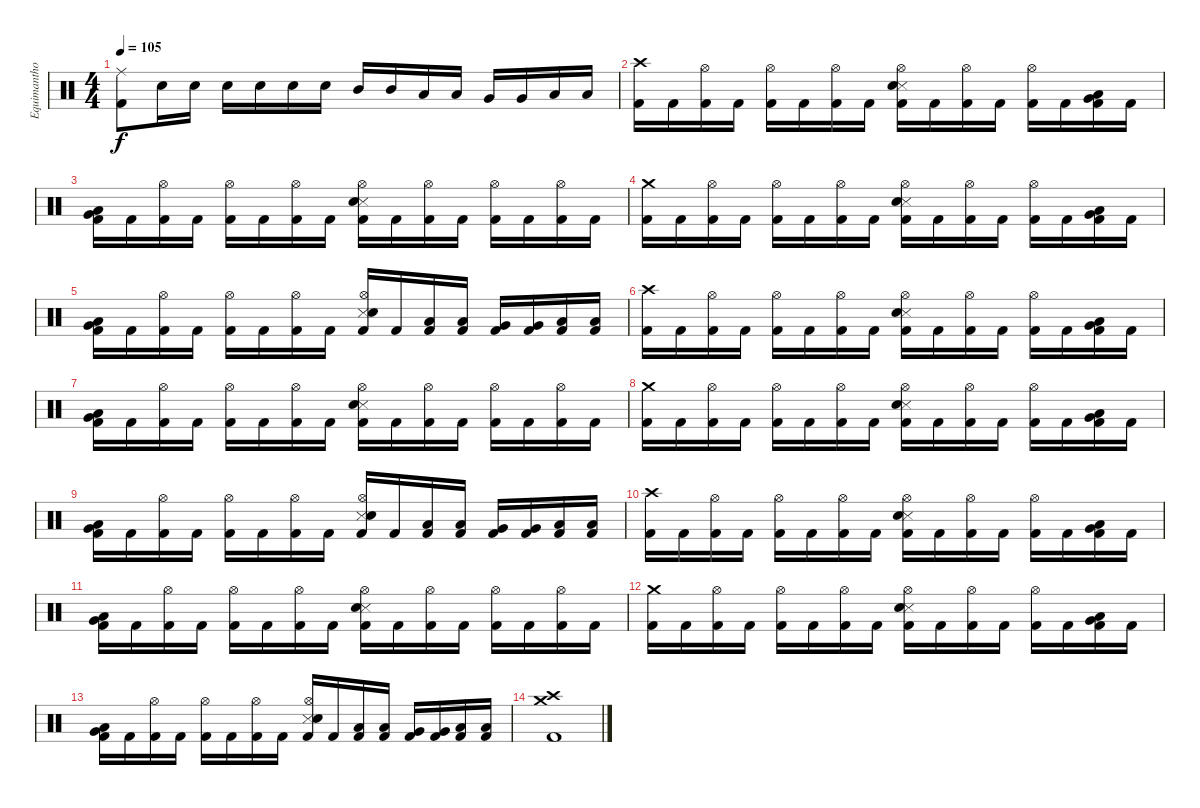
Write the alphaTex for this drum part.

\track ("Equimanthorn" "Equimantho") {instrument percussion}
\staff {score}
\articulation defaults
\ts (4 4)
\tempo 105
\clef neutral
\ks c
("Ride (middle)" "Kick (hit) 2").8{dy f} "Snare (hit) 2".16 "Snare (hit) 2".16 "Snare (hit) 2".16 "Snare (hit) 2".16 "Snare (hit) 2".16 "Snare (hit) 2".16 "Mid Tom (hit)".16 "Mid Tom (hit)".16 "Low Tom (hit)".16 "Low Tom (hit)".16 "Very Low Tom (hit)".16 "Very Low Tom (hit)".16 "Low Floor Tom (hit)".16 "Low Floor Tom (hit)".16 |
("Crash high (hit)" "Kick (hit) 2").16 "Kick (hit) 2".16 ("Hi-Hat (open)" "Kick (hit) 2").16 "Kick (hit) 2".16 ("Hi-Hat (open)" "Kick (hit) 2").16 "Kick (hit) 2".16 ("Hi-Hat (open)" "Kick (hit) 2").16 "Kick (hit) 2".16 ("Hi-Hat (open)" "Snare (side stick) 3" "Snare (hit) 2" "Kick (hit) 2").16 "Kick (hit) 2".16 ("Hi-Hat (open)" "Kick (hit) 2").16 "Kick (hit) 2".16 ("Hi-Hat (open)" "Kick (hit) 2").16 "Kick (hit) 2".16 ("Low Tom (hit)" "Very Low Tom (hit)" "Kick (hit) 2").16 "Kick (hit) 2".16 |
("Low Tom (hit)" "Very Low Tom (hit)" "Kick (hit) 2").16 "Kick (hit) 2".16 ("Hi-Hat (open)" "Kick (hit) 2").16 "Kick (hit) 2".16 ("Hi-Hat (open)" "Kick (hit) 2").16 "Kick (hit) 2".16 ("Hi-Hat (open)" "Kick (hit) 2").16 "Kick (hit) 2".16 ("Hi-Hat (open)" "Snare (side stick) 3" "Snare (hit) 2" "Kick (hit) 2").16 "Kick (hit) 2".16 ("Hi-Hat (open)" "Kick (hit) 2").16 "Kick (hit) 2".16 ("Hi-Hat (open)" "Kick (hit) 2").16 "Kick (hit) 2".16 ("Hi-Hat (open)" "Kick (hit) 2").16 "Kick (hit) 2".16 |
("Crash medium (hit)" "Kick (hit) 2").16 "Kick (hit) 2".16 ("Hi-Hat (open)" "Kick (hit) 2").16 "Kick (hit) 2".16 ("Hi-Hat (open)" "Kick (hit) 2").16 "Kick (hit) 2".16 ("Hi-Hat (open)" "Kick (hit) 2").16 "Kick (hit) 2".16 ("Hi-Hat (open)" "Snare (side stick) 3" "Snare (hit) 2" "Kick (hit) 2").16 "Kick (hit) 2".16 ("Hi-Hat (open)" "Kick (hit) 2").16 "Kick (hit) 2".16 ("Hi-Hat (open)" "Kick (hit) 2").16 "Kick (hit) 2".16 ("Low Tom (hit)" "Very Low Tom (hit)" "Kick (hit) 2").16 "Kick (hit) 2".16 |
("Low Tom (hit)" "Very Low Tom (hit)" "Kick (hit) 2").16 "Kick (hit) 2".16 ("Hi-Hat (open)" "Kick (hit) 2").16 "Kick (hit) 2".16 ("Hi-Hat (open)" "Kick (hit) 2").16 "Kick (hit) 2".16 ("Hi-Hat (open)" "Kick (hit) 2").16 "Kick (hit) 2".16 ("Hi-Hat (open)" "Snare (side stick) 3" "Snare (hit) 2" "Kick (hit) 2").16 "Kick (hit) 2".16 ("Low Tom (hit)" "Kick (hit) 2").16 ("Low Tom (hit)" "Kick (hit) 2").16 ("Very Low Tom (hit)" "Kick (hit) 2").16 ("Very Low Tom (hit)" "Kick (hit) 2").16 ("Low Floor Tom (hit)" "Kick (hit) 2").16 ("Low Floor Tom (hit)" "Kick (hit) 2").16 |
("Crash high (hit)" "Kick (hit) 2").16 "Kick (hit) 2".16 ("Hi-Hat (open)" "Kick (hit) 2").16 "Kick (hit) 2".16 ("Hi-Hat (open)" "Kick (hit) 2").16 "Kick (hit) 2".16 ("Hi-Hat (open)" "Kick (hit) 2").16 "Kick (hit) 2".16 ("Hi-Hat (open)" "Snare (side stick) 3" "Snare (hit) 2" "Kick (hit) 2").16 "Kick (hit) 2".16 ("Hi-Hat (open)" "Kick (hit) 2").16 "Kick (hit) 2".16 ("Hi-Hat (open)" "Kick (hit) 2").16 "Kick (hit) 2".16 ("Low Tom (hit)" "Very Low Tom (hit)" "Kick (hit) 2").16 "Kick (hit) 2".16 |
("Low Tom (hit)" "Very Low Tom (hit)" "Kick (hit) 2").16 "Kick (hit) 2".16 ("Hi-Hat (open)" "Kick (hit) 2").16 "Kick (hit) 2".16 ("Hi-Hat (open)" "Kick (hit) 2").16 "Kick (hit) 2".16 ("Hi-Hat (open)" "Kick (hit) 2").16 "Kick (hit) 2".16 ("Hi-Hat (open)" "Snare (side stick) 3" "Snare (hit) 2" "Kick (hit) 2").16 "Kick (hit) 2".16 ("Hi-Hat (open)" "Kick (hit) 2").16 "Kick (hit) 2".16 ("Hi-Hat (open)" "Kick (hit) 2").16 "Kick (hit) 2".16 ("Hi-Hat (open)" "Kick (hit) 2").16 "Kick (hit) 2".16 |
("Crash medium (hit)" "Kick (hit) 2").16 "Kick (hit) 2".16 ("Hi-Hat (open)" "Kick (hit) 2").16 "Kick (hit) 2".16 ("Hi-Hat (open)" "Kick (hit) 2").16 "Kick (hit) 2".16 ("Hi-Hat (open)" "Kick (hit) 2").16 "Kick (hit) 2".16 ("Hi-Hat (open)" "Snare (side stick) 3" "Snare (hit) 2" "Kick (hit) 2").16 "Kick (hit) 2".16 ("Hi-Hat (open)" "Kick (hit) 2").16 "Kick (hit) 2".16 ("Hi-Hat (open)" "Kick (hit) 2").16 "Kick (hit) 2".16 ("Low Tom (hit)" "Very Low Tom (hit)" "Kick (hit) 2").16 "Kick (hit) 2".16 |
("Low Tom (hit)" "Very Low Tom (hit)" "Kick (hit) 2").16 "Kick (hit) 2".16 ("Hi-Hat (open)" "Kick (hit) 2").16 "Kick (hit) 2".16 ("Hi-Hat (open)" "Kick (hit) 2").16 "Kick (hit) 2".16 ("Hi-Hat (open)" "Kick (hit) 2").16 "Kick (hit) 2".16 ("Hi-Hat (open)" "Snare (side stick) 3" "Snare (hit) 2" "Kick (hit) 2").16 "Kick (hit) 2".16 ("Low Tom (hit)" "Kick (hit) 2").16 ("Low Tom (hit)" "Kick (hit) 2").16 ("Very Low Tom (hit)" "Kick (hit) 2").16 ("Very Low Tom (hit)" "Kick (hit) 2").16 ("Low Floor Tom (hit)" "Kick (hit) 2").16 ("Low Floor Tom (hit)" "Kick (hit) 2").16 |
("Crash high (hit)" "Kick (hit) 2").16 "Kick (hit) 2".16 ("Hi-Hat (open)" "Kick (hit) 2").16 "Kick (hit) 2".16 ("Hi-Hat (open)" "Kick (hit) 2").16 "Kick (hit) 2".16 ("Hi-Hat (open)" "Kick (hit) 2").16 "Kick (hit) 2".16 ("Hi-Hat (open)" "Snare (side stick) 3" "Snare (hit) 2" "Kick (hit) 2").16 "Kick (hit) 2".16 ("Hi-Hat (open)" "Kick (hit) 2").16 "Kick (hit) 2".16 ("Hi-Hat (open)" "Kick (hit) 2").16 "Kick (hit) 2".16 ("Low Tom (hit)" "Very Low Tom (hit)" "Kick (hit) 2").16 "Kick (hit) 2".16 |
("Low Tom (hit)" "Very Low Tom (hit)" "Kick (hit) 2").16 "Kick (hit) 2".16 ("Hi-Hat (open)" "Kick (hit) 2").16 "Kick (hit) 2".16 ("Hi-Hat (open)" "Kick (hit) 2").16 "Kick (hit) 2".16 ("Hi-Hat (open)" "Kick (hit) 2").16 "Kick (hit) 2".16 ("Hi-Hat (open)" "Snare (side stick) 3" "Snare (hit) 2" "Kick (hit) 2").16 "Kick (hit) 2".16 ("Hi-Hat (open)" "Kick (hit) 2").16 "Kick (hit) 2".16 ("Hi-Hat (open)" "Kick (hit) 2").16 "Kick (hit) 2".16 ("Hi-Hat (open)" "Kick (hit) 2").16 "Kick (hit) 2".16 |
("Crash medium (hit)" "Kick (hit) 2").16 "Kick (hit) 2".16 ("Hi-Hat (open)" "Kick (hit) 2").16 "Kick (hit) 2".16 ("Hi-Hat (open)" "Kick (hit) 2").16 "Kick (hit) 2".16 ("Hi-Hat (open)" "Kick (hit) 2").16 "Kick (hit) 2".16 ("Hi-Hat (open)" "Snare (side stick) 3" "Snare (hit) 2" "Kick (hit) 2").16 "Kick (hit) 2".16 ("Hi-Hat (open)" "Kick (hit) 2").16 "Kick (hit) 2".16 ("Hi-Hat (open)" "Kick (hit) 2").16 "Kick (hit) 2".16 ("Low Tom (hit)" "Very Low Tom (hit)" "Kick (hit) 2").16 "Kick (hit) 2".16 |
("Low Tom (hit)" "Very Low Tom (hit)" "Kick (hit) 2").16 "Kick (hit) 2".16 ("Hi-Hat (open)" "Kick (hit) 2").16 "Kick (hit) 2".16 ("Hi-Hat (open)" "Kick (hit) 2").16 "Kick (hit) 2".16 ("Hi-Hat (open)" "Kick (hit) 2").16 "Kick (hit) 2".16 ("Hi-Hat (open)" "Snare (side stick) 3" "Snare (hit) 2" "Kick (hit) 2").16 "Kick (hit) 2".16 ("Low Tom (hit)" "Kick (hit) 2").16 ("Low Tom (hit)" "Kick (hit) 2").16 ("Very Low Tom (hit)" "Kick (hit) 2").16 ("Very Low Tom (hit)" "Kick (hit) 2").16 ("Low Floor Tom (hit)" "Kick (hit) 2").16 ("Low Floor Tom (hit)" "Kick (hit) 2").16 |
("Crash medium (hit)" "Crash high (hit)" "Kick (hit) 2").1
